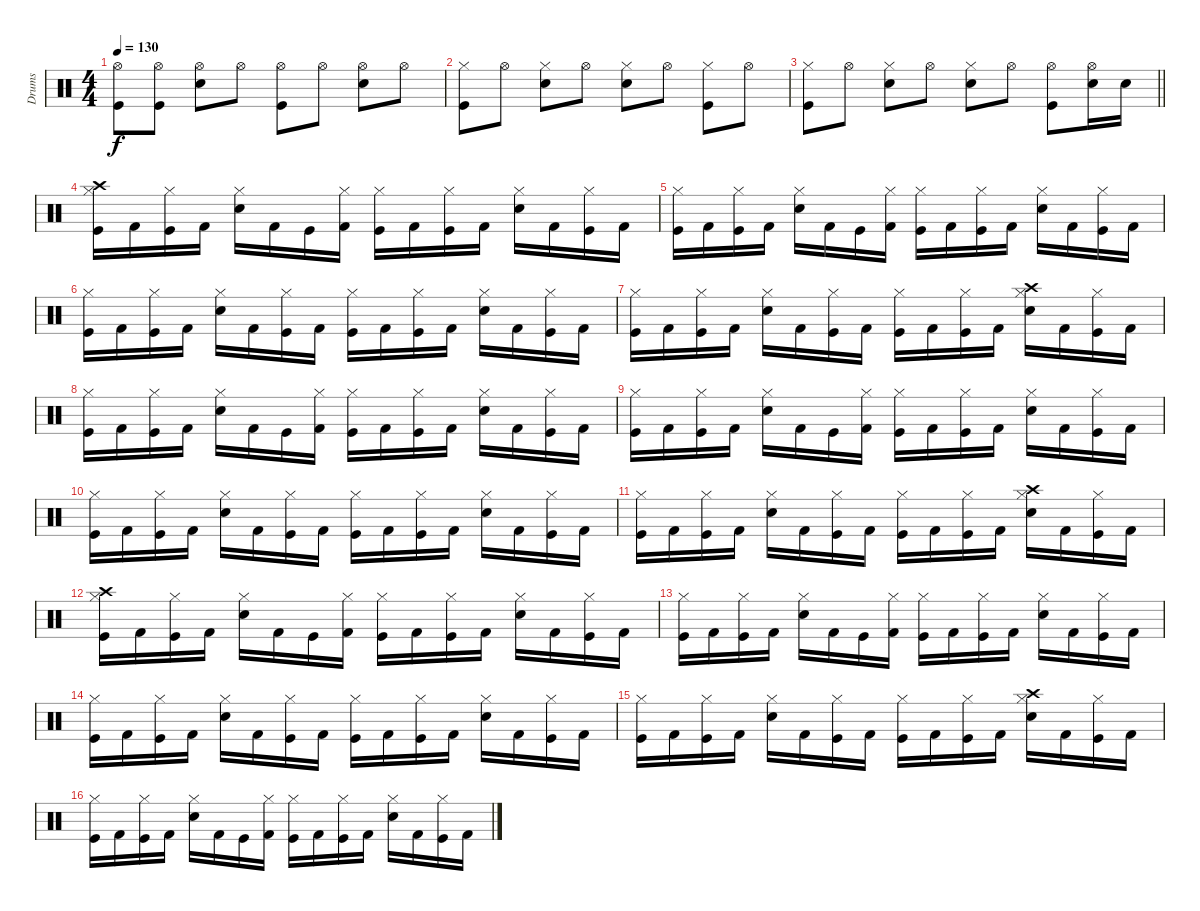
\track ("Drums" "Drums") {instrument percussion}
\staff {score}
\articulation defaults
\ts (4 4)
\tempo 130
\clef neutral
\ks c
("Hi-Hat (open)" "Kick (hit)").8{dy f} ("Hi-Hat (open)" "Kick (hit)").8 ("Hi-Hat (open)" "Snare (hit) 2").8 "Hi-Hat (open)".8 ("Hi-Hat (open)" "Kick (hit)").8 "Hi-Hat (open)".8 ("Hi-Hat (open)" "Snare (hit) 2").8 "Hi-Hat (open)".8 |
("Hi-Hat (closed)" "Kick (hit)").8 "Hi-Hat (open)".8 ("Hi-Hat (closed)" "Snare (hit) 2").8 "Hi-Hat (open)".8 ("Hi-Hat (closed)" "Snare (hit) 2").8 "Hi-Hat (open)".8 ("Hi-Hat (closed)" "Kick (hit)").8 "Hi-Hat (open)".8 |
\barLineRight lightlight
("Hi-Hat (closed)" "Kick (hit)").8 "Hi-Hat (open)".8 ("Hi-Hat (closed)" "Snare (hit) 2").8 "Hi-Hat (open)".8 ("Hi-Hat (closed)" "Snare (hit) 2").8 "Hi-Hat (open)".8 ("Hi-Hat (open)" "Kick (hit)").8 ("Hi-Hat (open)" "Snare (hit) 2").16 "Snare (hit) 2".16 |
\section ("" "")
("Crash high (hit)" "Hi-Hat (closed)" "Kick (hit)").16 "Kick (hit) 2".16 ("Hi-Hat (closed)" "Kick (hit)").16 "Kick (hit) 2".16 ("Hi-Hat (closed)" "Snare (hit) 2").16 "Kick (hit) 2".16 "Kick (hit)".16 ("Hi-Hat (closed)" "Kick (hit) 2").16 ("Hi-Hat (closed)" "Kick (hit)").16 "Kick (hit) 2".16 ("Hi-Hat (closed)" "Kick (hit)").16 "Kick (hit) 2".16 ("Hi-Hat (closed)" "Snare (hit) 2").16 "Kick (hit) 2".16 ("Hi-Hat (closed)" "Kick (hit)").16 "Kick (hit) 2".16 |
("Hi-Hat (closed)" "Kick (hit)").16 "Kick (hit) 2".16 ("Hi-Hat (closed)" "Kick (hit)").16 "Kick (hit) 2".16 ("Hi-Hat (closed)" "Snare (hit) 2").16 "Kick (hit) 2".16 "Kick (hit)".16 ("Hi-Hat (closed)" "Kick (hit) 2").16 ("Hi-Hat (closed)" "Kick (hit)").16 "Kick (hit) 2".16 ("Hi-Hat (closed)" "Kick (hit)").16 "Kick (hit) 2".16 ("Hi-Hat (closed)" "Snare (hit) 2").16 "Kick (hit) 2".16 ("Hi-Hat (closed)" "Kick (hit)").16 "Kick (hit) 2".16 |
("Hi-Hat (closed)" "Kick (hit)").16 "Kick (hit) 2".16 ("Hi-Hat (closed)" "Kick (hit)").16 "Kick (hit) 2".16 ("Hi-Hat (closed)" "Snare (hit) 2").16 "Kick (hit) 2".16 ("Hi-Hat (closed)" "Kick (hit)").16 "Kick (hit) 2".16 ("Hi-Hat (closed)" "Kick (hit)").16 "Kick (hit) 2".16 ("Hi-Hat (closed)" "Kick (hit)").16 "Kick (hit) 2".16 ("Hi-Hat (closed)" "Snare (hit) 2").16 "Kick (hit) 2".16 ("Hi-Hat (closed)" "Kick (hit)").16 "Kick (hit) 2".16 |
("Hi-Hat (closed)" "Kick (hit)").16 "Kick (hit) 2".16 ("Hi-Hat (closed)" "Kick (hit)").16 "Kick (hit) 2".16 ("Hi-Hat (closed)" "Snare (hit) 2").16 "Kick (hit) 2".16 ("Hi-Hat (closed)" "Kick (hit)").16 "Kick (hit) 2".16 ("Hi-Hat (closed)" "Kick (hit)").16 "Kick (hit) 2".16 ("Hi-Hat (closed)" "Kick (hit)").16 "Kick (hit) 2".16 ("Crash high (hit)" "Hi-Hat (closed)" "Snare (hit) 2").16 "Kick (hit) 2".16 ("Hi-Hat (closed)" "Kick (hit)").16 "Kick (hit) 2".16 |
("Hi-Hat (closed)" "Kick (hit)").16 "Kick (hit) 2".16 ("Hi-Hat (closed)" "Kick (hit)").16 "Kick (hit) 2".16 ("Hi-Hat (closed)" "Snare (hit) 2").16 "Kick (hit) 2".16 "Kick (hit)".16 ("Hi-Hat (closed)" "Kick (hit) 2").16 ("Hi-Hat (closed)" "Kick (hit)").16 "Kick (hit) 2".16 ("Hi-Hat (closed)" "Kick (hit)").16 "Kick (hit) 2".16 ("Hi-Hat (closed)" "Snare (hit) 2").16 "Kick (hit) 2".16 ("Hi-Hat (closed)" "Kick (hit)").16 "Kick (hit) 2".16 |
("Hi-Hat (closed)" "Kick (hit)").16 "Kick (hit) 2".16 ("Hi-Hat (closed)" "Kick (hit)").16 "Kick (hit) 2".16 ("Hi-Hat (closed)" "Snare (hit) 2").16 "Kick (hit) 2".16 "Kick (hit)".16 ("Hi-Hat (closed)" "Kick (hit) 2").16 ("Hi-Hat (closed)" "Kick (hit)").16 "Kick (hit) 2".16 ("Hi-Hat (closed)" "Kick (hit)").16 "Kick (hit) 2".16 ("Hi-Hat (closed)" "Snare (hit) 2").16 "Kick (hit) 2".16 ("Hi-Hat (closed)" "Kick (hit)").16 "Kick (hit) 2".16 |
("Hi-Hat (closed)" "Kick (hit)").16 "Kick (hit) 2".16 ("Hi-Hat (closed)" "Kick (hit)").16 "Kick (hit) 2".16 ("Hi-Hat (closed)" "Snare (hit) 2").16 "Kick (hit) 2".16 ("Hi-Hat (closed)" "Kick (hit)").16 "Kick (hit) 2".16 ("Hi-Hat (closed)" "Kick (hit)").16 "Kick (hit) 2".16 ("Hi-Hat (closed)" "Kick (hit)").16 "Kick (hit) 2".16 ("Hi-Hat (closed)" "Snare (hit) 2").16 "Kick (hit) 2".16 ("Hi-Hat (closed)" "Kick (hit)").16 "Kick (hit) 2".16 |
("Hi-Hat (closed)" "Kick (hit)").16 "Kick (hit) 2".16 ("Hi-Hat (closed)" "Kick (hit)").16 "Kick (hit) 2".16 ("Hi-Hat (closed)" "Snare (hit) 2").16 "Kick (hit) 2".16 ("Hi-Hat (closed)" "Kick (hit)").16 "Kick (hit) 2".16 ("Hi-Hat (closed)" "Kick (hit)").16 "Kick (hit) 2".16 ("Hi-Hat (closed)" "Kick (hit)").16 "Kick (hit) 2".16 ("Crash high (hit)" "Hi-Hat (closed)" "Snare (hit) 2").16 "Kick (hit) 2".16 ("Hi-Hat (closed)" "Kick (hit)").16 "Kick (hit) 2".16 |
("Crash high (hit)" "Hi-Hat (closed)" "Kick (hit)").16 "Kick (hit) 2".16 ("Hi-Hat (closed)" "Kick (hit)").16 "Kick (hit) 2".16 ("Hi-Hat (closed)" "Snare (hit) 2").16 "Kick (hit) 2".16 "Kick (hit)".16 ("Hi-Hat (closed)" "Kick (hit) 2").16 ("Hi-Hat (closed)" "Kick (hit)").16 "Kick (hit) 2".16 ("Hi-Hat (closed)" "Kick (hit)").16 "Kick (hit) 2".16 ("Hi-Hat (closed)" "Snare (hit) 2").16 "Kick (hit) 2".16 ("Hi-Hat (closed)" "Kick (hit)").16 "Kick (hit) 2".16 |
("Hi-Hat (closed)" "Kick (hit)").16 "Kick (hit) 2".16 ("Hi-Hat (closed)" "Kick (hit)").16 "Kick (hit) 2".16 ("Hi-Hat (closed)" "Snare (hit) 2").16 "Kick (hit) 2".16 "Kick (hit)".16 ("Hi-Hat (closed)" "Kick (hit) 2").16 ("Hi-Hat (closed)" "Kick (hit)").16 "Kick (hit) 2".16 ("Hi-Hat (closed)" "Kick (hit)").16 "Kick (hit) 2".16 ("Hi-Hat (closed)" "Snare (hit) 2").16 "Kick (hit) 2".16 ("Hi-Hat (closed)" "Kick (hit)").16 "Kick (hit) 2".16 |
("Hi-Hat (closed)" "Kick (hit)").16 "Kick (hit) 2".16 ("Hi-Hat (closed)" "Kick (hit)").16 "Kick (hit) 2".16 ("Hi-Hat (closed)" "Snare (hit) 2").16 "Kick (hit) 2".16 ("Hi-Hat (closed)" "Kick (hit)").16 "Kick (hit) 2".16 ("Hi-Hat (closed)" "Kick (hit)").16 "Kick (hit) 2".16 ("Hi-Hat (closed)" "Kick (hit)").16 "Kick (hit) 2".16 ("Hi-Hat (closed)" "Snare (hit) 2").16 "Kick (hit) 2".16 ("Hi-Hat (closed)" "Kick (hit)").16 "Kick (hit) 2".16 |
("Hi-Hat (closed)" "Kick (hit)").16 "Kick (hit) 2".16 ("Hi-Hat (closed)" "Kick (hit)").16 "Kick (hit) 2".16 ("Hi-Hat (closed)" "Snare (hit) 2").16 "Kick (hit) 2".16 ("Hi-Hat (closed)" "Kick (hit)").16 "Kick (hit) 2".16 ("Hi-Hat (closed)" "Kick (hit)").16 "Kick (hit) 2".16 ("Hi-Hat (closed)" "Kick (hit)").16 "Kick (hit) 2".16 ("Crash high (hit)" "Hi-Hat (closed)" "Snare (hit) 2").16 "Kick (hit) 2".16 ("Hi-Hat (closed)" "Kick (hit)").16 "Kick (hit) 2".16 |
("Hi-Hat (closed)" "Kick (hit)").16 "Kick (hit) 2".16 ("Hi-Hat (closed)" "Kick (hit)").16 "Kick (hit) 2".16 ("Hi-Hat (closed)" "Snare (hit) 2").16 "Kick (hit) 2".16 "Kick (hit)".16 ("Hi-Hat (closed)" "Kick (hit) 2").16 ("Hi-Hat (closed)" "Kick (hit)").16 "Kick (hit) 2".16 ("Hi-Hat (closed)" "Kick (hit)").16 "Kick (hit) 2".16 ("Hi-Hat (closed)" "Snare (hit) 2").16 "Kick (hit) 2".16 ("Hi-Hat (closed)" "Kick (hit)").16 "Kick (hit) 2".16
